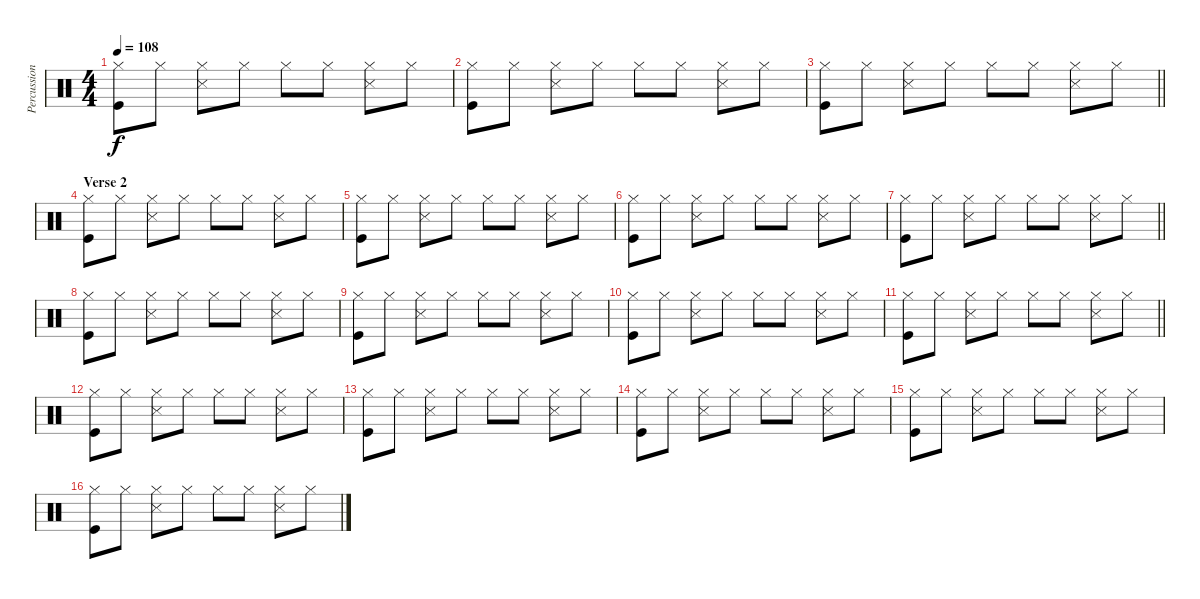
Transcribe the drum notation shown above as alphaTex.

\track ("Percussion" "Percussion") {instrument percussion}
\staff {score}
\articulation defaults
\ts (4 4)
\tempo 108
\clef neutral
\ks c
("Hi-Hat (closed)" "Kick (hit)").8{dy f} "Hi-Hat (closed)".8 ("Hi-Hat (closed)" "Snare (side stick) 3").8 "Hi-Hat (closed)".8 "Hi-Hat (closed)".8 "Hi-Hat (closed)".8 ("Hi-Hat (closed)" "Snare (side stick) 3").8 "Hi-Hat (closed)".8 |
("Hi-Hat (closed)" "Kick (hit)").8 "Hi-Hat (closed)".8 ("Hi-Hat (closed)" "Snare (side stick) 3").8 "Hi-Hat (closed)".8 "Hi-Hat (closed)".8 "Hi-Hat (closed)".8 ("Hi-Hat (closed)" "Snare (side stick) 3").8 "Hi-Hat (closed)".8 |
\barLineRight lightlight
("Hi-Hat (closed)" "Kick (hit)").8 "Hi-Hat (closed)".8 ("Hi-Hat (closed)" "Snare (side stick) 3").8 "Hi-Hat (closed)".8 "Hi-Hat (closed)".8 "Hi-Hat (closed)".8 ("Hi-Hat (closed)" "Snare (side stick) 3").8 "Hi-Hat (closed)".8 |
\section ("" "Verse 2")
("Hi-Hat (closed)" "Kick (hit)").8 "Hi-Hat (closed)".8 ("Hi-Hat (closed)" "Snare (side stick) 3").8 "Hi-Hat (closed)".8 "Hi-Hat (closed)".8 "Hi-Hat (closed)".8 ("Hi-Hat (closed)" "Snare (side stick) 3").8 "Hi-Hat (closed)".8 |
("Hi-Hat (closed)" "Kick (hit)").8 "Hi-Hat (closed)".8 ("Hi-Hat (closed)" "Snare (side stick) 3").8 "Hi-Hat (closed)".8 "Hi-Hat (closed)".8 "Hi-Hat (closed)".8 ("Hi-Hat (closed)" "Snare (side stick) 3").8 "Hi-Hat (closed)".8 |
("Hi-Hat (closed)" "Kick (hit)").8 "Hi-Hat (closed)".8 ("Hi-Hat (closed)" "Snare (side stick) 3").8 "Hi-Hat (closed)".8 "Hi-Hat (closed)".8 "Hi-Hat (closed)".8 ("Hi-Hat (closed)" "Snare (side stick) 3").8 "Hi-Hat (closed)".8 |
\barLineRight lightlight
("Hi-Hat (closed)" "Kick (hit)").8 "Hi-Hat (closed)".8 ("Hi-Hat (closed)" "Snare (side stick) 3").8 "Hi-Hat (closed)".8 "Hi-Hat (closed)".8 "Hi-Hat (closed)".8 ("Hi-Hat (closed)" "Snare (side stick) 3").8 "Hi-Hat (closed)".8 |
("Hi-Hat (closed)" "Kick (hit)").8 "Hi-Hat (closed)".8 ("Hi-Hat (closed)" "Snare (side stick) 3").8 "Hi-Hat (closed)".8 "Hi-Hat (closed)".8 "Hi-Hat (closed)".8 ("Hi-Hat (closed)" "Snare (side stick) 3").8 "Hi-Hat (closed)".8 |
("Hi-Hat (closed)" "Kick (hit)").8 "Hi-Hat (closed)".8 ("Hi-Hat (closed)" "Snare (side stick) 3").8 "Hi-Hat (closed)".8 "Hi-Hat (closed)".8 "Hi-Hat (closed)".8 ("Hi-Hat (closed)" "Snare (side stick) 3").8 "Hi-Hat (closed)".8 |
("Hi-Hat (closed)" "Kick (hit)").8 "Hi-Hat (closed)".8 ("Hi-Hat (closed)" "Snare (side stick) 3").8 "Hi-Hat (closed)".8 "Hi-Hat (closed)".8 "Hi-Hat (closed)".8 ("Hi-Hat (closed)" "Snare (side stick) 3").8 "Hi-Hat (closed)".8 |
\barLineRight lightlight
("Hi-Hat (closed)" "Kick (hit)").8 "Hi-Hat (closed)".8 ("Hi-Hat (closed)" "Snare (side stick) 3").8 "Hi-Hat (closed)".8 "Hi-Hat (closed)".8 "Hi-Hat (closed)".8 ("Hi-Hat (closed)" "Snare (side stick) 3").8 "Hi-Hat (closed)".8 |
("Hi-Hat (closed)" "Kick (hit)").8 "Hi-Hat (closed)".8 ("Hi-Hat (closed)" "Snare (side stick) 3").8 "Hi-Hat (closed)".8 "Hi-Hat (closed)".8 "Hi-Hat (closed)".8 ("Hi-Hat (closed)" "Snare (side stick) 3").8 "Hi-Hat (closed)".8 |
("Hi-Hat (closed)" "Kick (hit)").8 "Hi-Hat (closed)".8 ("Hi-Hat (closed)" "Snare (side stick) 3").8 "Hi-Hat (closed)".8 "Hi-Hat (closed)".8 "Hi-Hat (closed)".8 ("Hi-Hat (closed)" "Snare (side stick) 3").8 "Hi-Hat (closed)".8 |
("Hi-Hat (closed)" "Kick (hit)").8 "Hi-Hat (closed)".8 ("Hi-Hat (closed)" "Snare (side stick) 3").8 "Hi-Hat (closed)".8 "Hi-Hat (closed)".8 "Hi-Hat (closed)".8 ("Hi-Hat (closed)" "Snare (side stick) 3").8 "Hi-Hat (closed)".8 |
("Hi-Hat (closed)" "Kick (hit)").8 "Hi-Hat (closed)".8 ("Hi-Hat (closed)" "Snare (side stick) 3").8 "Hi-Hat (closed)".8 "Hi-Hat (closed)".8 "Hi-Hat (closed)".8 ("Hi-Hat (closed)" "Snare (side stick) 3").8 "Hi-Hat (closed)".8 |
("Hi-Hat (closed)" "Kick (hit)").8 "Hi-Hat (closed)".8 ("Hi-Hat (closed)" "Snare (side stick) 3").8 "Hi-Hat (closed)".8 "Hi-Hat (closed)".8 "Hi-Hat (closed)".8 ("Hi-Hat (closed)" "Snare (side stick) 3").8 "Hi-Hat (closed)".8
